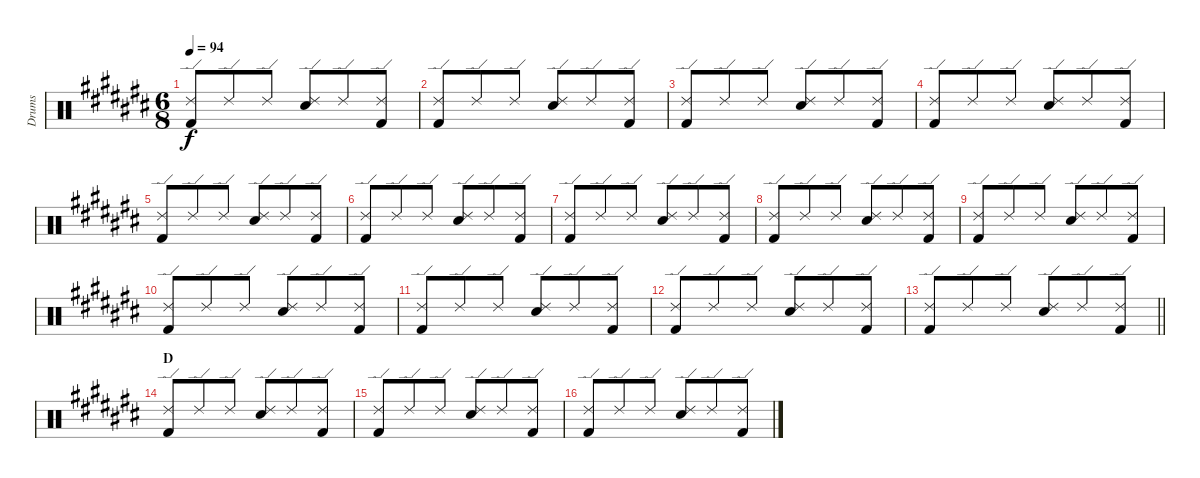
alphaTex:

\track ("Drums" "Drums") {instrument percussion}
\staff {score}
\articulation defaults
\ts (6 8)
\tempo 94
\clef neutral
\ks c#
("Ride (edge) 2" "Kick (hit) 2").8{dy f} "Ride (edge) 2".8 "Ride (edge) 2".8 ("Ride (edge) 2" "Snare (hit) 2").8 "Ride (edge) 2".8 ("Ride (edge) 2" "Kick (hit) 2").8 |
("Ride (edge) 2" "Kick (hit) 2").8 "Ride (edge) 2".8 "Ride (edge) 2".8 ("Ride (edge) 2" "Snare (hit) 2").8 "Ride (edge) 2".8 ("Ride (edge) 2" "Kick (hit) 2").8 |
("Ride (edge) 2" "Kick (hit) 2").8 "Ride (edge) 2".8 "Ride (edge) 2".8 ("Ride (edge) 2" "Snare (hit) 2").8 "Ride (edge) 2".8 ("Ride (edge) 2" "Kick (hit) 2").8 |
("Ride (edge) 2" "Kick (hit) 2").8 "Ride (edge) 2".8 "Ride (edge) 2".8 ("Ride (edge) 2" "Snare (hit) 2").8 "Ride (edge) 2".8 ("Ride (edge) 2" "Kick (hit) 2").8 |
("Ride (edge) 2" "Kick (hit) 2").8 "Ride (edge) 2".8 "Ride (edge) 2".8 ("Ride (edge) 2" "Snare (hit) 2").8 "Ride (edge) 2".8 ("Ride (edge) 2" "Kick (hit) 2").8 |
("Ride (edge) 2" "Kick (hit) 2").8 "Ride (edge) 2".8 "Ride (edge) 2".8 ("Ride (edge) 2" "Snare (hit) 2").8 "Ride (edge) 2".8 ("Ride (edge) 2" "Kick (hit) 2").8 |
("Ride (edge) 2" "Kick (hit) 2").8 "Ride (edge) 2".8 "Ride (edge) 2".8 ("Ride (edge) 2" "Snare (hit) 2").8 "Ride (edge) 2".8 ("Ride (edge) 2" "Kick (hit) 2").8 |
("Ride (edge) 2" "Kick (hit) 2").8 "Ride (edge) 2".8 "Ride (edge) 2".8 ("Ride (edge) 2" "Snare (hit) 2").8 "Ride (edge) 2".8 ("Ride (edge) 2" "Kick (hit) 2").8 |
("Ride (edge) 2" "Kick (hit) 2").8 "Ride (edge) 2".8 "Ride (edge) 2".8 ("Ride (edge) 2" "Snare (hit) 2").8 "Ride (edge) 2".8 ("Ride (edge) 2" "Kick (hit) 2").8 |
("Ride (edge) 2" "Kick (hit) 2").8 "Ride (edge) 2".8 "Ride (edge) 2".8 ("Ride (edge) 2" "Snare (hit) 2").8 "Ride (edge) 2".8 ("Ride (edge) 2" "Kick (hit) 2").8 |
("Ride (edge) 2" "Kick (hit) 2").8 "Ride (edge) 2".8 "Ride (edge) 2".8 ("Ride (edge) 2" "Snare (hit) 2").8 "Ride (edge) 2".8 ("Ride (edge) 2" "Kick (hit) 2").8 |
("Ride (edge) 2" "Kick (hit) 2").8 "Ride (edge) 2".8 "Ride (edge) 2".8 ("Ride (edge) 2" "Snare (hit) 2").8 "Ride (edge) 2".8 ("Ride (edge) 2" "Kick (hit) 2").8 |
\barLineRight lightlight
("Ride (edge) 2" "Kick (hit) 2").8 "Ride (edge) 2".8 "Ride (edge) 2".8 ("Ride (edge) 2" "Snare (hit) 2").8 "Ride (edge) 2".8 ("Ride (edge) 2" "Kick (hit) 2").8 |
\section ("" "D")
("Ride (edge) 2" "Kick (hit) 2").8 "Ride (edge) 2".8 "Ride (edge) 2".8 ("Ride (edge) 2" "Snare (hit) 2").8 "Ride (edge) 2".8 ("Ride (edge) 2" "Kick (hit) 2").8 |
("Ride (edge) 2" "Kick (hit) 2").8 "Ride (edge) 2".8 "Ride (edge) 2".8 ("Ride (edge) 2" "Snare (hit) 2").8 "Ride (edge) 2".8 ("Ride (edge) 2" "Kick (hit) 2").8 |
("Ride (edge) 2" "Kick (hit) 2").8 "Ride (edge) 2".8 "Ride (edge) 2".8 ("Ride (edge) 2" "Snare (hit) 2").8 "Ride (edge) 2".8 ("Ride (edge) 2" "Kick (hit) 2").8
